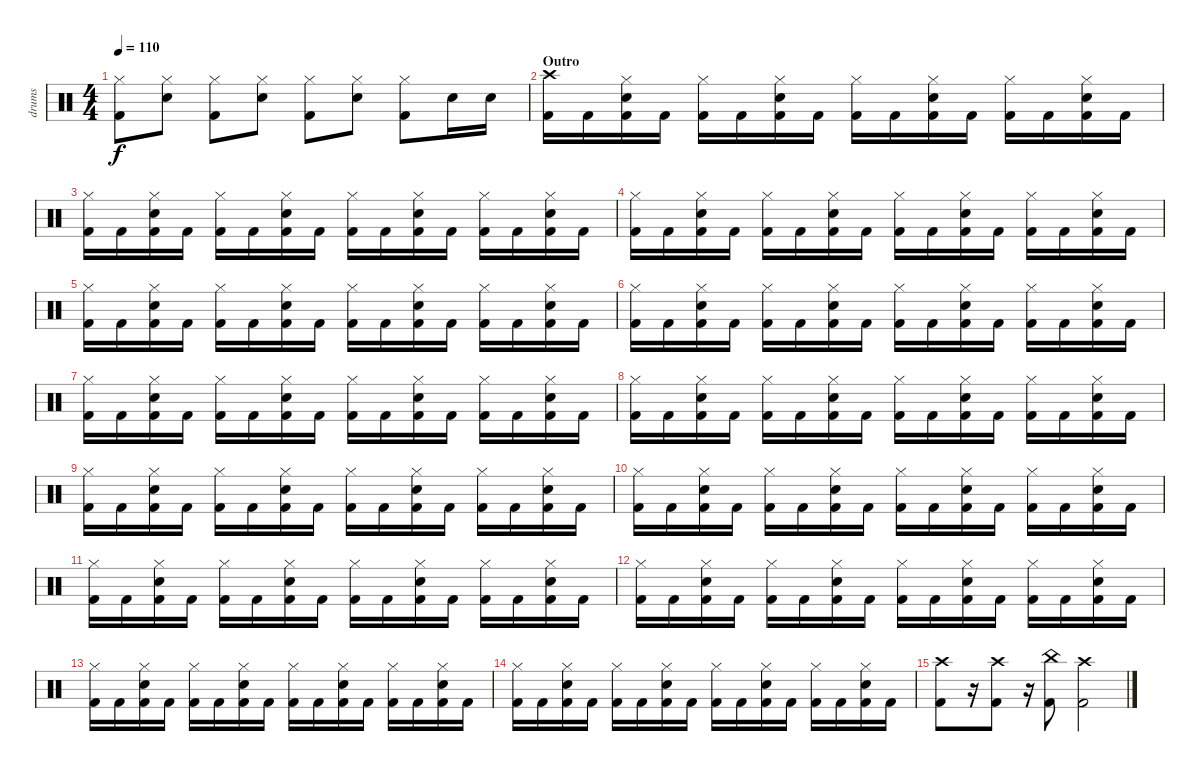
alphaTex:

\track ("drums" "drums") {instrument percussion}
\staff {score}
\articulation defaults
\ts (4 4)
\tempo 110
\clef neutral
\ks c
("Hi-Hat (closed)" "Kick (hit) 2").8{dy f} ("Hi-Hat (closed)" "Snare (hit) 2").8 ("Hi-Hat (closed)" "Kick (hit) 2").8 ("Hi-Hat (closed)" "Snare (hit) 2").8 ("Hi-Hat (closed)" "Kick (hit) 2").8 ("Hi-Hat (closed)" "Snare (hit) 2").8 ("Hi-Hat (closed)" "Kick (hit) 2").8 "Snare (hit) 2".16 "Snare (hit) 2".16 |
\section ("" "Outro")
("Crash high (hit)" "Kick (hit) 2").16 "Kick (hit) 2".16 ("Hi-Hat (closed)" "Snare (hit) 2" "Kick (hit) 2").16 "Kick (hit) 2".16 ("Hi-Hat (closed)" "Kick (hit) 2").16 "Kick (hit) 2".16 ("Hi-Hat (closed)" "Snare (hit) 2" "Kick (hit) 2").16 "Kick (hit) 2".16 ("Hi-Hat (closed)" "Kick (hit) 2").16 "Kick (hit) 2".16 ("Hi-Hat (closed)" "Snare (hit) 2" "Kick (hit) 2").16 "Kick (hit) 2".16 ("Hi-Hat (closed)" "Kick (hit) 2").16 "Kick (hit) 2".16 ("Hi-Hat (closed)" "Snare (hit) 2" "Kick (hit) 2").16 "Kick (hit) 2".16 |
("Hi-Hat (closed)" "Kick (hit) 2").16 "Kick (hit) 2".16 ("Hi-Hat (closed)" "Snare (hit) 2" "Kick (hit) 2").16 "Kick (hit) 2".16 ("Hi-Hat (closed)" "Kick (hit) 2").16 "Kick (hit) 2".16 ("Hi-Hat (closed)" "Snare (hit) 2" "Kick (hit) 2").16 "Kick (hit) 2".16 ("Hi-Hat (closed)" "Kick (hit) 2").16 "Kick (hit) 2".16 ("Hi-Hat (closed)" "Snare (hit) 2" "Kick (hit) 2").16 "Kick (hit) 2".16 ("Hi-Hat (closed)" "Kick (hit) 2").16 "Kick (hit) 2".16 ("Hi-Hat (closed)" "Snare (hit) 2" "Kick (hit) 2").16 "Kick (hit) 2".16 |
("Hi-Hat (closed)" "Kick (hit) 2").16 "Kick (hit) 2".16 ("Hi-Hat (closed)" "Snare (hit) 2" "Kick (hit) 2").16 "Kick (hit) 2".16 ("Hi-Hat (closed)" "Kick (hit) 2").16 "Kick (hit) 2".16 ("Hi-Hat (closed)" "Snare (hit) 2" "Kick (hit) 2").16 "Kick (hit) 2".16 ("Hi-Hat (closed)" "Kick (hit) 2").16 "Kick (hit) 2".16 ("Hi-Hat (closed)" "Snare (hit) 2" "Kick (hit) 2").16 "Kick (hit) 2".16 ("Hi-Hat (closed)" "Kick (hit) 2").16 "Kick (hit) 2".16 ("Hi-Hat (closed)" "Snare (hit) 2" "Kick (hit) 2").16 "Kick (hit) 2".16 |
("Hi-Hat (closed)" "Kick (hit) 2").16 "Kick (hit) 2".16 ("Hi-Hat (closed)" "Snare (hit) 2" "Kick (hit) 2").16 "Kick (hit) 2".16 ("Hi-Hat (closed)" "Kick (hit) 2").16 "Kick (hit) 2".16 ("Hi-Hat (closed)" "Snare (hit) 2" "Kick (hit) 2").16 "Kick (hit) 2".16 ("Hi-Hat (closed)" "Kick (hit) 2").16 "Kick (hit) 2".16 ("Hi-Hat (closed)" "Snare (hit) 2" "Kick (hit) 2").16 "Kick (hit) 2".16 ("Hi-Hat (closed)" "Kick (hit) 2").16 "Kick (hit) 2".16 ("Hi-Hat (closed)" "Snare (hit) 2" "Kick (hit) 2").16 "Kick (hit) 2".16 |
("Hi-Hat (closed)" "Kick (hit) 2").16 "Kick (hit) 2".16 ("Hi-Hat (closed)" "Snare (hit) 2" "Kick (hit) 2").16 "Kick (hit) 2".16 ("Hi-Hat (closed)" "Kick (hit) 2").16 "Kick (hit) 2".16 ("Hi-Hat (closed)" "Snare (hit) 2" "Kick (hit) 2").16 "Kick (hit) 2".16 ("Hi-Hat (closed)" "Kick (hit) 2").16 "Kick (hit) 2".16 ("Hi-Hat (closed)" "Snare (hit) 2" "Kick (hit) 2").16 "Kick (hit) 2".16 ("Hi-Hat (closed)" "Kick (hit) 2").16 "Kick (hit) 2".16 ("Hi-Hat (closed)" "Snare (hit) 2" "Kick (hit) 2").16 "Kick (hit) 2".16 |
("Hi-Hat (closed)" "Kick (hit) 2").16 "Kick (hit) 2".16 ("Hi-Hat (closed)" "Snare (hit) 2" "Kick (hit) 2").16 "Kick (hit) 2".16 ("Hi-Hat (closed)" "Kick (hit) 2").16 "Kick (hit) 2".16 ("Hi-Hat (closed)" "Snare (hit) 2" "Kick (hit) 2").16 "Kick (hit) 2".16 ("Hi-Hat (closed)" "Kick (hit) 2").16 "Kick (hit) 2".16 ("Hi-Hat (closed)" "Snare (hit) 2" "Kick (hit) 2").16 "Kick (hit) 2".16 ("Hi-Hat (closed)" "Kick (hit) 2").16 "Kick (hit) 2".16 ("Hi-Hat (closed)" "Snare (hit) 2" "Kick (hit) 2").16 "Kick (hit) 2".16 |
("Hi-Hat (closed)" "Kick (hit) 2").16 "Kick (hit) 2".16 ("Hi-Hat (closed)" "Snare (hit) 2" "Kick (hit) 2").16 "Kick (hit) 2".16 ("Hi-Hat (closed)" "Kick (hit) 2").16 "Kick (hit) 2".16 ("Hi-Hat (closed)" "Snare (hit) 2" "Kick (hit) 2").16 "Kick (hit) 2".16 ("Hi-Hat (closed)" "Kick (hit) 2").16 "Kick (hit) 2".16 ("Hi-Hat (closed)" "Snare (hit) 2" "Kick (hit) 2").16 "Kick (hit) 2".16 ("Hi-Hat (closed)" "Kick (hit) 2").16 "Kick (hit) 2".16 ("Hi-Hat (closed)" "Snare (hit) 2" "Kick (hit) 2").16 "Kick (hit) 2".16 |
("Hi-Hat (closed)" "Kick (hit) 2").16 "Kick (hit) 2".16 ("Hi-Hat (closed)" "Snare (hit) 2" "Kick (hit) 2").16 "Kick (hit) 2".16 ("Hi-Hat (closed)" "Kick (hit) 2").16 "Kick (hit) 2".16 ("Hi-Hat (closed)" "Snare (hit) 2" "Kick (hit) 2").16 "Kick (hit) 2".16 ("Hi-Hat (closed)" "Kick (hit) 2").16 "Kick (hit) 2".16 ("Hi-Hat (closed)" "Snare (hit) 2" "Kick (hit) 2").16 "Kick (hit) 2".16 ("Hi-Hat (closed)" "Kick (hit) 2").16 "Kick (hit) 2".16 ("Hi-Hat (closed)" "Snare (hit) 2" "Kick (hit) 2").16 "Kick (hit) 2".16 |
("Hi-Hat (closed)" "Kick (hit) 2").16 "Kick (hit) 2".16 ("Hi-Hat (closed)" "Snare (hit) 2" "Kick (hit) 2").16 "Kick (hit) 2".16 ("Hi-Hat (closed)" "Kick (hit) 2").16 "Kick (hit) 2".16 ("Hi-Hat (closed)" "Snare (hit) 2" "Kick (hit) 2").16 "Kick (hit) 2".16 ("Hi-Hat (closed)" "Kick (hit) 2").16 "Kick (hit) 2".16 ("Hi-Hat (closed)" "Snare (hit) 2" "Kick (hit) 2").16 "Kick (hit) 2".16 ("Hi-Hat (closed)" "Kick (hit) 2").16 "Kick (hit) 2".16 ("Hi-Hat (closed)" "Snare (hit) 2" "Kick (hit) 2").16 "Kick (hit) 2".16 |
("Hi-Hat (closed)" "Kick (hit) 2").16 "Kick (hit) 2".16 ("Hi-Hat (closed)" "Snare (hit) 2" "Kick (hit) 2").16 "Kick (hit) 2".16 ("Hi-Hat (closed)" "Kick (hit) 2").16 "Kick (hit) 2".16 ("Hi-Hat (closed)" "Snare (hit) 2" "Kick (hit) 2").16 "Kick (hit) 2".16 ("Hi-Hat (closed)" "Kick (hit) 2").16 "Kick (hit) 2".16 ("Hi-Hat (closed)" "Snare (hit) 2" "Kick (hit) 2").16 "Kick (hit) 2".16 ("Hi-Hat (closed)" "Kick (hit) 2").16 "Kick (hit) 2".16 ("Hi-Hat (closed)" "Snare (hit) 2" "Kick (hit) 2").16 "Kick (hit) 2".16 |
("Hi-Hat (closed)" "Kick (hit) 2").16 "Kick (hit) 2".16 ("Hi-Hat (closed)" "Snare (hit) 2" "Kick (hit) 2").16 "Kick (hit) 2".16 ("Hi-Hat (closed)" "Kick (hit) 2").16 "Kick (hit) 2".16 ("Hi-Hat (closed)" "Snare (hit) 2" "Kick (hit) 2").16 "Kick (hit) 2".16 ("Hi-Hat (closed)" "Kick (hit) 2").16 "Kick (hit) 2".16 ("Hi-Hat (closed)" "Snare (hit) 2" "Kick (hit) 2").16 "Kick (hit) 2".16 ("Hi-Hat (closed)" "Kick (hit) 2").16 "Kick (hit) 2".16 ("Hi-Hat (closed)" "Snare (hit) 2" "Kick (hit) 2").16 "Kick (hit) 2".16 |
("Hi-Hat (closed)" "Kick (hit) 2").16 "Kick (hit) 2".16 ("Hi-Hat (closed)" "Snare (hit) 2" "Kick (hit) 2").16 "Kick (hit) 2".16 ("Hi-Hat (closed)" "Kick (hit) 2").16 "Kick (hit) 2".16 ("Hi-Hat (closed)" "Snare (hit) 2" "Kick (hit) 2").16 "Kick (hit) 2".16 ("Hi-Hat (closed)" "Kick (hit) 2").16 "Kick (hit) 2".16 ("Hi-Hat (closed)" "Snare (hit) 2" "Kick (hit) 2").16 "Kick (hit) 2".16 ("Hi-Hat (closed)" "Kick (hit) 2").16 "Kick (hit) 2".16 ("Hi-Hat (closed)" "Snare (hit) 2" "Kick (hit) 2").16 "Kick (hit) 2".16 |
("Hi-Hat (closed)" "Kick (hit) 2").16 "Kick (hit) 2".16 ("Hi-Hat (closed)" "Snare (hit) 2" "Kick (hit) 2").16 "Kick (hit) 2".16 ("Hi-Hat (closed)" "Kick (hit) 2").16 "Kick (hit) 2".16 ("Hi-Hat (closed)" "Snare (hit) 2" "Kick (hit) 2").16 "Kick (hit) 2".16 ("Hi-Hat (closed)" "Kick (hit) 2").16 "Kick (hit) 2".16 ("Hi-Hat (closed)" "Snare (hit) 2" "Kick (hit) 2").16 "Kick (hit) 2".16 ("Hi-Hat (closed)" "Kick (hit) 2").16 "Kick (hit) 2".16 ("Hi-Hat (closed)" "Snare (hit) 2" "Kick (hit) 2").16 "Kick (hit) 2".16 |
("Crash high (hit)" "Kick (hit) 2").8 r.16 ("Crash high (hit)" "Kick (hit) 2").8 r.16 ("China (hit)" "Kick (hit) 2").8 ("Crash high (hit)" "Kick (hit) 2").2
